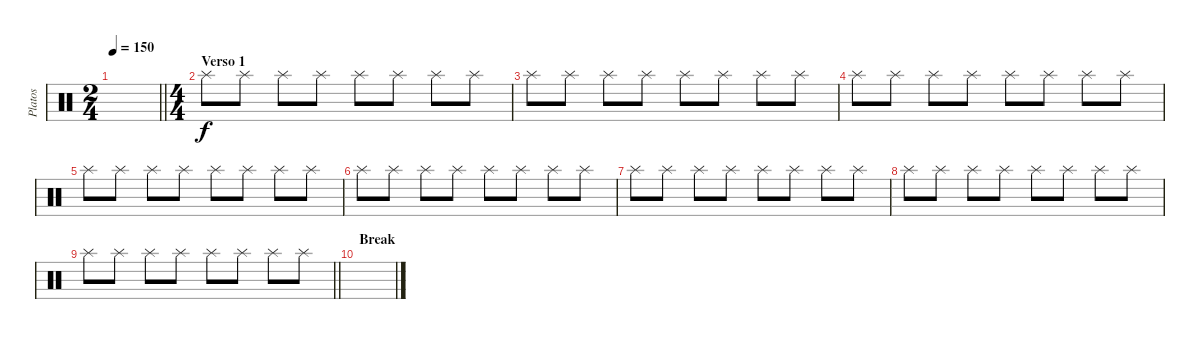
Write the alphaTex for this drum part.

\track ("Platos" "Platos") {instrument percussion}
\staff {score}
\articulation defaults
\ts (2 4)
\tempo 150
\clef neutral
\barLineRight lightlight
\ks c
|
\ts (4 4)
\section ("" "Verso 1")
"Splash (hit)".8 "Splash (hit)".8 "Splash (hit)".8 "Splash (hit)".8 "Splash (hit)".8 "Splash (hit)".8 "Splash (hit)".8 "Splash (hit)".8 |
"Splash (hit)".8 "Splash (hit)".8 "Splash (hit)".8 "Splash (hit)".8 "Splash (hit)".8 "Splash (hit)".8 "Splash (hit)".8 "Splash (hit)".8 |
"Splash (hit)".8 "Splash (hit)".8 "Splash (hit)".8 "Splash (hit)".8 "Splash (hit)".8 "Splash (hit)".8 "Splash (hit)".8 "Splash (hit)".8 |
"Splash (hit)".8 "Splash (hit)".8 "Splash (hit)".8 "Splash (hit)".8 "Splash (hit)".8 "Splash (hit)".8 "Splash (hit)".8 "Splash (hit)".8 |
"Splash (hit)".8 "Splash (hit)".8 "Splash (hit)".8 "Splash (hit)".8 "Splash (hit)".8 "Splash (hit)".8 "Splash (hit)".8 "Splash (hit)".8 |
"Splash (hit)".8 "Splash (hit)".8 "Splash (hit)".8 "Splash (hit)".8 "Splash (hit)".8 "Splash (hit)".8 "Splash (hit)".8 "Splash (hit)".8 |
"Splash (hit)".8 "Splash (hit)".8 "Splash (hit)".8 "Splash (hit)".8 "Splash (hit)".8 "Splash (hit)".8 "Splash (hit)".8 "Splash (hit)".8 |
\barLineRight lightlight "Splash (hit)".8 "Splash (hit)".8 "Splash (hit)".8 "Splash (hit)".8 "Splash (hit)".8 "Splash (hit)".8 "Splash (hit)".8 "Splash (hit)".8
|
\section ("" "Break")
